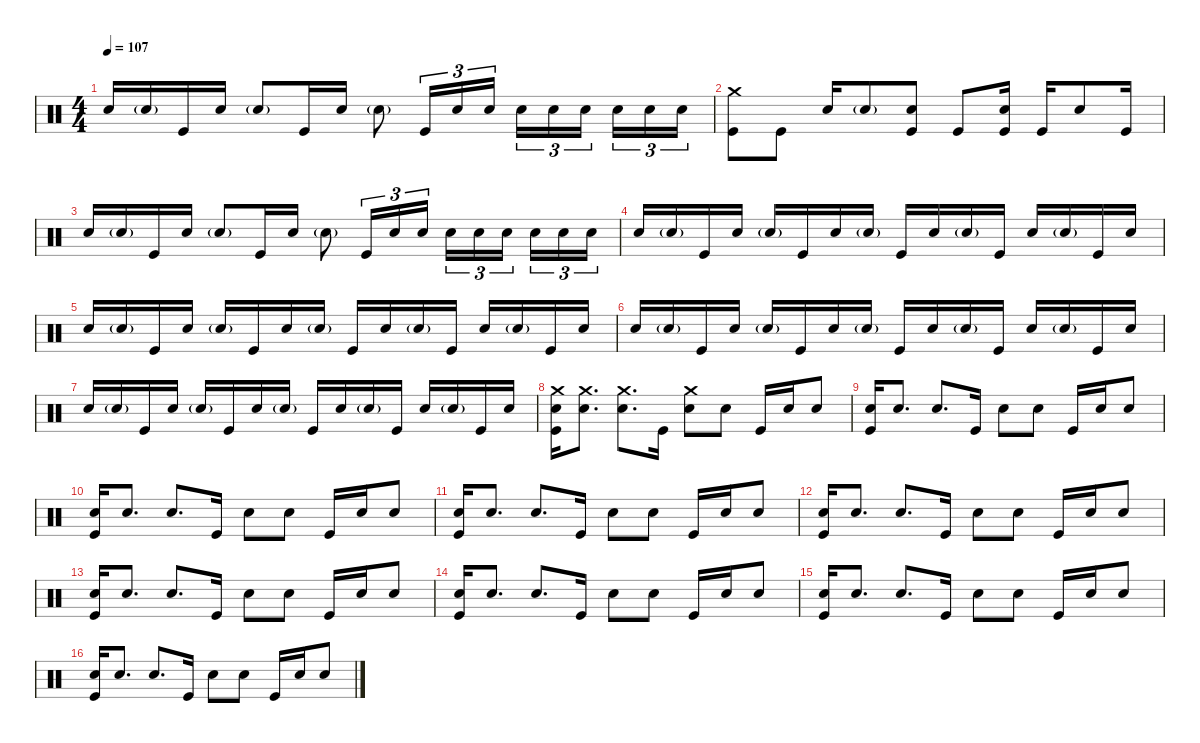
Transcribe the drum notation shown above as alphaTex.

\defaultSystemsLayout 4
\hideDynamics
\bracketExtendMode nobrackets
\singleTrackTrackNamePolicy hidden
\multiTrackTrackNamePolicy hidden
\firstSystemTrackNameMode fullname
\firstSystemTrackNameOrientation horizontal
\otherSystemsTrackNameOrientation horizontal
\track ("Mitch" "drm.") {instrument percussion}
\staff {score}
\articulation defaults
\ts (4 4)
\tempo 107
\clef neutral
\ks c "Snare (hit) 2".16{dy f beam Up} "Snare (hit) 2"{g}.16{beam Up} "Kick (hit)".16{beam Up} "Snare (hit) 2".16{beam Up} "Snare (hit) 2"{g}.8{beam Up} "Kick (hit)".16{beam Up} "Snare (hit) 2".16{beam Up} "Snare (hit) 2"{g}.8{beam Down} "Kick (hit)".16{tu (3 2) beam Up} "Snare (hit) 2".16{tu (3 2) beam Up} "Snare (hit) 2".16{tu (3 2) beam Up} "Snare (hit) 2".16{tu (3 2) beam Down} "Snare (hit) 2".16{tu (3 2) beam Down} "Snare (hit) 2".16{tu (3 2) beam Down} "Snare (hit) 2".16{tu (3 2) beam Down} "Snare (hit) 2".16{tu (3 2) beam Down} "Snare (hit) 2".16{tu (3 2) beam Down}
|
("Crash medium (hit)" "Kick (hit)").8{beam Down} "Kick (hit)".8{beam Down} "Snare (hit) 2".16{beam Up} "Snare (hit) 2"{g}.8{beam Up} ("Snare (hit) 2" "Kick (hit)").8{beam Up} "Kick (hit)".8{beam Up} ("Snare (hit) 2" "Kick (hit)").16{beam Up} "Kick (hit)".16{beam Up} "Snare (hit) 2".8{beam Up} "Kick (hit)".16{beam Up} |
"Snare (hit) 2".16{beam Up} "Snare (hit) 2"{g}.16{beam Up} "Kick (hit)".16{beam Up} "Snare (hit) 2".16{beam Up} "Snare (hit) 2"{g}.8{beam Up} "Kick (hit)".16{beam Up} "Snare (hit) 2".16{beam Up} "Snare (hit) 2"{g}.8{beam Down} "Kick (hit)".16{tu (3 2) beam Up} "Snare (hit) 2".16{tu (3 2) beam Up} "Snare (hit) 2".16{tu (3 2) beam Up} "Snare (hit) 2".16{tu (3 2) beam Down} "Snare (hit) 2".16{tu (3 2) beam Down} "Snare (hit) 2".16{tu (3 2) beam Down} "Snare (hit) 2".16{tu (3 2) beam Down} "Snare (hit) 2".16{tu (3 2) beam Down} "Snare (hit) 2".16{tu (3 2) beam Down} |
"Snare (hit) 2".16{beam Up} "Snare (hit) 2"{g}.16{beam Up} "Kick (hit)".16{beam Up} "Snare (hit) 2".16{beam Up} "Snare (hit) 2"{g}.16{beam Up} "Kick (hit)".16{beam Up} "Snare (hit) 2".16{beam Up} "Snare (hit) 2"{g}.16{beam Up} "Kick (hit)".16{beam Up} "Snare (hit) 2".16{beam Up} "Snare (hit) 2"{g}.16{beam Up} "Kick (hit)".16{beam Up} "Snare (hit) 2".16{beam Up} "Snare (hit) 2"{g}.16{beam Up} "Kick (hit)".16{beam Up} "Snare (hit) 2".16{beam Up} |
"Snare (hit) 2".16{beam Up} "Snare (hit) 2"{g}.16{beam Up} "Kick (hit)".16{beam Up} "Snare (hit) 2".16{beam Up} "Snare (hit) 2"{g}.16{beam Up} "Kick (hit)".16{beam Up} "Snare (hit) 2".16{beam Up} "Snare (hit) 2"{g}.16{beam Up} "Kick (hit)".16{beam Up} "Snare (hit) 2".16{beam Up} "Snare (hit) 2"{g}.16{beam Up} "Kick (hit)".16{beam Up} "Snare (hit) 2".16{beam Up} "Snare (hit) 2"{g}.16{beam Up} "Kick (hit)".16{beam Up} "Snare (hit) 2".16{beam Up} |
"Snare (hit) 2".16{beam Up} "Snare (hit) 2"{g}.16{beam Up} "Kick (hit)".16{beam Up} "Snare (hit) 2".16{beam Up} "Snare (hit) 2"{g}.16{beam Up} "Kick (hit)".16{beam Up} "Snare (hit) 2".16{beam Up} "Snare (hit) 2"{g}.16{beam Up} "Kick (hit)".16{beam Up} "Snare (hit) 2".16{beam Up} "Snare (hit) 2"{g}.16{beam Up} "Kick (hit)".16{beam Up} "Snare (hit) 2".16{beam Up} "Snare (hit) 2"{g}.16{beam Up} "Kick (hit)".16{beam Up} "Snare (hit) 2".16{beam Up} |
"Snare (hit) 2".16{beam Up} "Snare (hit) 2"{g}.16{beam Up} "Kick (hit)".16{beam Up} "Snare (hit) 2".16{beam Up} "Snare (hit) 2"{g}.16{beam Up} "Kick (hit)".16{beam Up} "Snare (hit) 2".16{beam Up} "Snare (hit) 2"{g}.16{beam Up} "Kick (hit)".16{beam Up} "Snare (hit) 2".16{beam Up} "Snare (hit) 2"{g}.16{beam Up} "Kick (hit)".16{beam Up} "Snare (hit) 2".16{beam Up} "Snare (hit) 2"{g}.16{beam Up} "Kick (hit)".16{beam Up} "Snare (hit) 2".16{beam Up} |
("Crash medium (hit)" "Snare (hit) 2" "Kick (hit)").16{beam Down} ("Crash medium (hit)" "Snare (hit) 2").8{d beam Down} ("Crash medium (hit)" "Snare (hit) 2").8{d beam Down} "Kick (hit)".16{beam Down} ("Crash medium (hit)" "Snare (hit) 2").8{beam Down} "Snare (hit) 2".8{beam Down} "Kick (hit)".16{beam Up} "Snare (hit) 2".16{beam Up} "Snare (hit) 2".8{beam Up} |
("Snare (hit) 2" "Kick (hit)").16{beam Up} "Snare (hit) 2".8{d beam Up} "Snare (hit) 2".8{d beam Up} "Kick (hit)".16{beam Up} "Snare (hit) 2".8{beam Down} "Snare (hit) 2".8{beam Down} "Kick (hit)".16{beam Up} "Snare (hit) 2".16{beam Up} "Snare (hit) 2".8{beam Up} |
("Snare (hit) 2" "Kick (hit)").16{beam Up} "Snare (hit) 2".8{d beam Up} "Snare (hit) 2".8{d beam Up} "Kick (hit)".16{beam Up} "Snare (hit) 2".8{beam Down} "Snare (hit) 2".8{beam Down} "Kick (hit)".16{beam Up} "Snare (hit) 2".16{beam Up} "Snare (hit) 2".8{beam Up} |
("Snare (hit) 2" "Kick (hit)").16{beam Up} "Snare (hit) 2".8{d beam Up} "Snare (hit) 2".8{d beam Up} "Kick (hit)".16{beam Up} "Snare (hit) 2".8{beam Down} "Snare (hit) 2".8{beam Down} "Kick (hit)".16{beam Up} "Snare (hit) 2".16{beam Up} "Snare (hit) 2".8{beam Up} |
("Snare (hit) 2" "Kick (hit)").16{beam Up} "Snare (hit) 2".8{d beam Up} "Snare (hit) 2".8{d beam Up} "Kick (hit)".16{beam Up} "Snare (hit) 2".8{beam Down} "Snare (hit) 2".8{beam Down} "Kick (hit)".16{beam Up} "Snare (hit) 2".16{beam Up} "Snare (hit) 2".8{beam Up} |
("Snare (hit) 2" "Kick (hit)").16{beam Up} "Snare (hit) 2".8{d beam Up} "Snare (hit) 2".8{d beam Up} "Kick (hit)".16{beam Up} "Snare (hit) 2".8{beam Down} "Snare (hit) 2".8{beam Down} "Kick (hit)".16{beam Up} "Snare (hit) 2".16{beam Up} "Snare (hit) 2".8{beam Up} |
("Snare (hit) 2" "Kick (hit)").16{beam Up} "Snare (hit) 2".8{d beam Up} "Snare (hit) 2".8{d beam Up} "Kick (hit)".16{beam Up} "Snare (hit) 2".8{beam Down} "Snare (hit) 2".8{beam Down} "Kick (hit)".16{beam Up} "Snare (hit) 2".16{beam Up} "Snare (hit) 2".8{beam Up} |
("Snare (hit) 2" "Kick (hit)").16{beam Up} "Snare (hit) 2".8{d beam Up} "Snare (hit) 2".8{d beam Up} "Kick (hit)".16{beam Up} "Snare (hit) 2".8{beam Down} "Snare (hit) 2".8{beam Down} "Kick (hit)".16{beam Up} "Snare (hit) 2".16{beam Up} "Snare (hit) 2".8{beam Up} |
("Snare (hit) 2" "Kick (hit)").16{beam Up} "Snare (hit) 2".8{d beam Up} "Snare (hit) 2".8{d beam Up} "Kick (hit)".16{beam Up} "Snare (hit) 2".8{beam Down} "Snare (hit) 2".8{beam Down} "Kick (hit)".16{beam Up} "Snare (hit) 2".16{beam Up} "Snare (hit) 2".8{beam Up}
